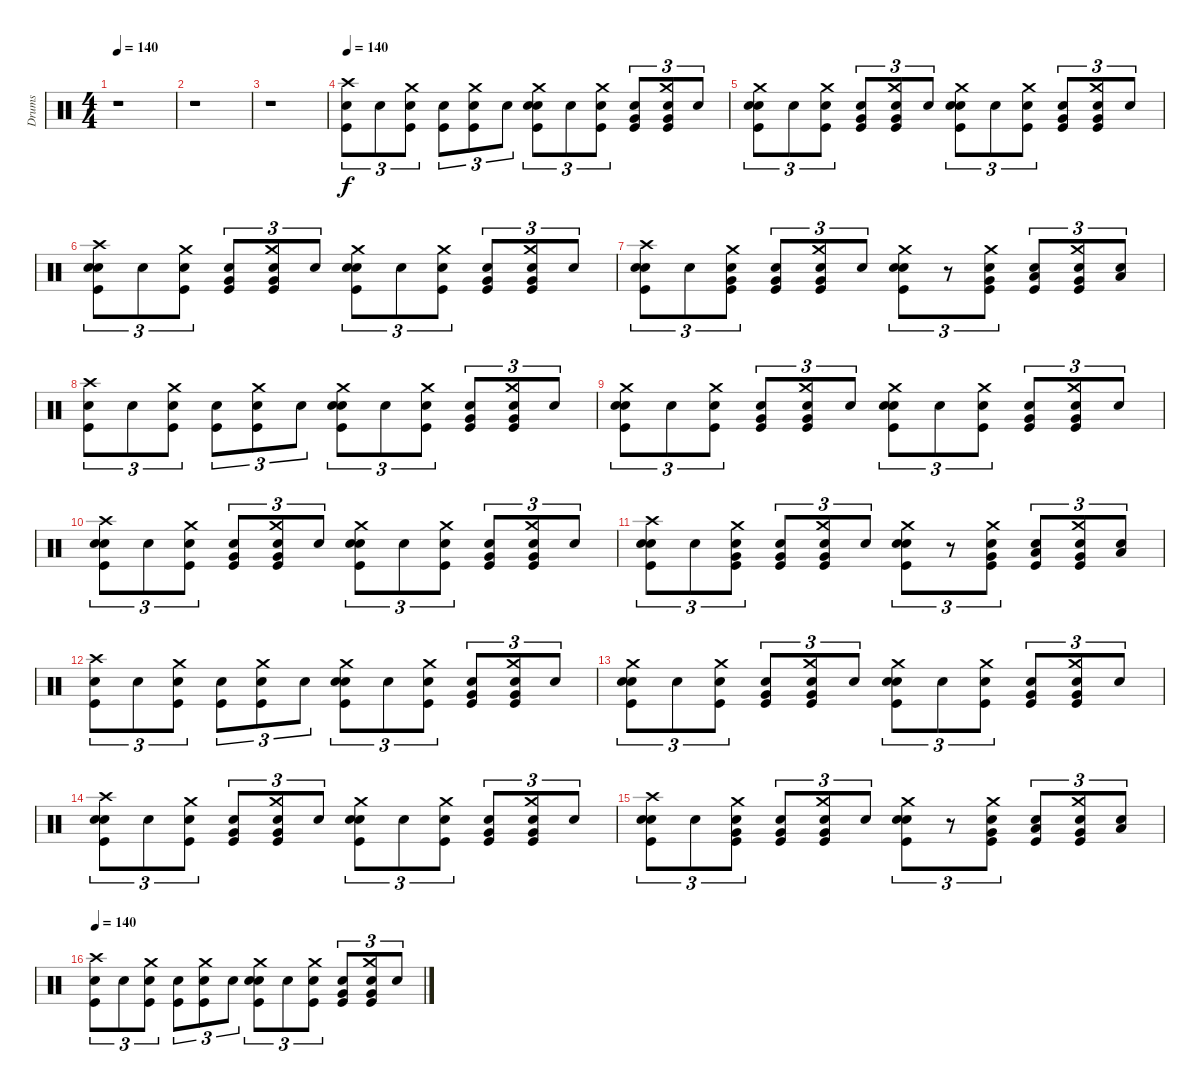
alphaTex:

\track ("Drums" "Drums") {instrument percussion}
\staff {score}
\articulation defaults
\ts (4 4)
\tempo 140
\clef neutral
\ks c
r.1{dy f} |
r.1 |
r.1 |
\tempo 140
("Crash high (hit)" "Snare (hit) 2" "Kick (hit)").8{tu (3 2)} "Snare (hit) 2".8{tu (3 2)} ("Crash medium (hit)" "Snare (hit) 2" "Kick (hit)").8{tu (3 2)} ("Snare (hit) 2" "Kick (hit)").8{tu (3 2)} ("Crash medium (hit)" "Snare (hit) 2" "Kick (hit)").8{tu (3 2)} "Snare (hit) 2".8{tu (3 2)} ("Crash medium (hit)" "Snare (hit) 2" "Snare (hit) 2" "Kick (hit)").8{tu (3 2)} "Snare (hit) 2".8{tu (3 2)} ("Crash medium (hit)" "Snare (hit) 2" "Kick (hit)").8{tu (3 2)} ("Snare (hit) 2" "Very Low Tom (hit)" "Kick (hit)").8{tu (3 2)} ("Crash medium (hit)" "Snare (hit) 2" "Very Low Tom (hit)" "Kick (hit)").8{tu (3 2)} "Snare (hit) 2".8{tu (3 2)} |
("Crash medium (hit)" "Snare (hit) 2" "Snare (hit) 2" "Kick (hit)").8{tu (3 2)} "Snare (hit) 2".8{tu (3 2)} ("Crash medium (hit)" "Snare (hit) 2" "Kick (hit)").8{tu (3 2)} ("Snare (hit) 2" "Very Low Tom (hit)" "Kick (hit)").8{tu (3 2)} ("Crash medium (hit)" "Snare (hit) 2" "Very Low Tom (hit)" "Kick (hit)").8{tu (3 2)} "Snare (hit) 2".8{tu (3 2)} ("Crash medium (hit)" "Snare (hit) 2" "Snare (hit) 2" "Kick (hit)").8{tu (3 2)} "Snare (hit) 2".8{tu (3 2)} ("Crash medium (hit)" "Snare (hit) 2" "Kick (hit)").8{tu (3 2)} ("Snare (hit) 2" "Very Low Tom (hit)" "Kick (hit)").8{tu (3 2)} ("Crash medium (hit)" "Snare (hit) 2" "Very Low Tom (hit)" "Kick (hit)").8{tu (3 2)} "Snare (hit) 2".8{tu (3 2)} |
("Crash high (hit)" "Snare (hit) 2" "Snare (hit) 2" "Kick (hit)").8{tu (3 2)} "Snare (hit) 2".8{tu (3 2)} ("Crash medium (hit)" "Snare (hit) 2" "Kick (hit)").8{tu (3 2)} ("Snare (hit) 2" "Very Low Tom (hit)" "Kick (hit)").8{tu (3 2)} ("Crash medium (hit)" "Snare (hit) 2" "Very Low Tom (hit)" "Kick (hit)").8{tu (3 2)} "Snare (hit) 2".8{tu (3 2)} ("Crash medium (hit)" "Snare (hit) 2" "Snare (hit) 2" "Kick (hit)").8{tu (3 2)} "Snare (hit) 2".8{tu (3 2)} ("Crash medium (hit)" "Snare (hit) 2" "Kick (hit)").8{tu (3 2)} ("Snare (hit) 2" "Very Low Tom (hit)" "Kick (hit)").8{tu (3 2)} ("Crash medium (hit)" "Snare (hit) 2" "Very Low Tom (hit)" "Kick (hit)").8{tu (3 2)} "Snare (hit) 2".8{tu (3 2)} |
("Crash high (hit)" "Snare (hit) 2" "Snare (hit) 2" "Kick (hit)").8{tu (3 2)} "Snare (hit) 2".8{tu (3 2)} ("Crash medium (hit)" "Snare (hit) 2" "Very Low Tom (hit)" "Kick (hit)").8{tu (3 2)} ("Snare (hit) 2" "Very Low Tom (hit)" "Kick (hit)").8{tu (3 2)} ("Crash medium (hit)" "Snare (hit) 2" "Very Low Tom (hit)" "Kick (hit)").8{tu (3 2)} "Snare (hit) 2".8{tu (3 2)} ("Crash medium (hit)" "Snare (hit) 2" "Snare (hit) 2" "Kick (hit)").8{tu (3 2)} r.8{tu (3 2)} ("Crash medium (hit)" "Snare (hit) 2" "Very Low Tom (hit)" "Kick (hit)").8{tu (3 2)} ("Snare (hit) 2" "Low Tom (hit)" "Kick (hit)").8{tu (3 2)} ("Crash medium (hit)" "Snare (hit) 2" "Very Low Tom (hit)" "Kick (hit)").8{tu (3 2)} ("Snare (hit) 2" "Low Floor Tom (hit)").8{tu (3 2)} |
("Crash high (hit)" "Snare (hit) 2" "Kick (hit)").8{tu (3 2)} "Snare (hit) 2".8{tu (3 2)} ("Crash medium (hit)" "Snare (hit) 2" "Kick (hit)").8{tu (3 2)} ("Snare (hit) 2" "Kick (hit)").8{tu (3 2)} ("Crash medium (hit)" "Snare (hit) 2" "Kick (hit)").8{tu (3 2)} "Snare (hit) 2".8{tu (3 2)} ("Crash medium (hit)" "Snare (hit) 2" "Snare (hit) 2" "Kick (hit)").8{tu (3 2)} "Snare (hit) 2".8{tu (3 2)} ("Crash medium (hit)" "Snare (hit) 2" "Kick (hit)").8{tu (3 2)} ("Snare (hit) 2" "Very Low Tom (hit)" "Kick (hit)").8{tu (3 2)} ("Crash medium (hit)" "Snare (hit) 2" "Very Low Tom (hit)" "Kick (hit)").8{tu (3 2)} "Snare (hit) 2".8{tu (3 2)} |
("Crash medium (hit)" "Snare (hit) 2" "Snare (hit) 2" "Kick (hit)").8{tu (3 2)} "Snare (hit) 2".8{tu (3 2)} ("Crash medium (hit)" "Snare (hit) 2" "Kick (hit)").8{tu (3 2)} ("Snare (hit) 2" "Very Low Tom (hit)" "Kick (hit)").8{tu (3 2)} ("Crash medium (hit)" "Snare (hit) 2" "Very Low Tom (hit)" "Kick (hit)").8{tu (3 2)} "Snare (hit) 2".8{tu (3 2)} ("Crash medium (hit)" "Snare (hit) 2" "Snare (hit) 2" "Kick (hit)").8{tu (3 2)} "Snare (hit) 2".8{tu (3 2)} ("Crash medium (hit)" "Snare (hit) 2" "Kick (hit)").8{tu (3 2)} ("Snare (hit) 2" "Very Low Tom (hit)" "Kick (hit)").8{tu (3 2)} ("Crash medium (hit)" "Snare (hit) 2" "Very Low Tom (hit)" "Kick (hit)").8{tu (3 2)} "Snare (hit) 2".8{tu (3 2)} |
("Crash high (hit)" "Snare (hit) 2" "Snare (hit) 2" "Kick (hit)").8{tu (3 2)} "Snare (hit) 2".8{tu (3 2)} ("Crash medium (hit)" "Snare (hit) 2" "Kick (hit)").8{tu (3 2)} ("Snare (hit) 2" "Very Low Tom (hit)" "Kick (hit)").8{tu (3 2)} ("Crash medium (hit)" "Snare (hit) 2" "Very Low Tom (hit)" "Kick (hit)").8{tu (3 2)} "Snare (hit) 2".8{tu (3 2)} ("Crash medium (hit)" "Snare (hit) 2" "Snare (hit) 2" "Kick (hit)").8{tu (3 2)} "Snare (hit) 2".8{tu (3 2)} ("Crash medium (hit)" "Snare (hit) 2" "Kick (hit)").8{tu (3 2)} ("Snare (hit) 2" "Very Low Tom (hit)" "Kick (hit)").8{tu (3 2)} ("Crash medium (hit)" "Snare (hit) 2" "Very Low Tom (hit)" "Kick (hit)").8{tu (3 2)} "Snare (hit) 2".8{tu (3 2)} |
("Crash high (hit)" "Snare (hit) 2" "Snare (hit) 2" "Kick (hit)").8{tu (3 2)} "Snare (hit) 2".8{tu (3 2)} ("Crash medium (hit)" "Snare (hit) 2" "Very Low Tom (hit)" "Kick (hit)").8{tu (3 2)} ("Snare (hit) 2" "Very Low Tom (hit)" "Kick (hit)").8{tu (3 2)} ("Crash medium (hit)" "Snare (hit) 2" "Very Low Tom (hit)" "Kick (hit)").8{tu (3 2)} "Snare (hit) 2".8{tu (3 2)} ("Crash medium (hit)" "Snare (hit) 2" "Snare (hit) 2" "Kick (hit)").8{tu (3 2)} r.8{tu (3 2)} ("Crash medium (hit)" "Snare (hit) 2" "Very Low Tom (hit)" "Kick (hit)").8{tu (3 2)} ("Snare (hit) 2" "Low Tom (hit)" "Kick (hit)").8{tu (3 2)} ("Crash medium (hit)" "Snare (hit) 2" "Very Low Tom (hit)" "Kick (hit)").8{tu (3 2)} ("Snare (hit) 2" "Low Floor Tom (hit)").8{tu (3 2)} |
("Crash high (hit)" "Snare (hit) 2" "Kick (hit)").8{tu (3 2)} "Snare (hit) 2".8{tu (3 2)} ("Crash medium (hit)" "Snare (hit) 2" "Kick (hit)").8{tu (3 2)} ("Snare (hit) 2" "Kick (hit)").8{tu (3 2)} ("Crash medium (hit)" "Snare (hit) 2" "Kick (hit)").8{tu (3 2)} "Snare (hit) 2".8{tu (3 2)} ("Crash medium (hit)" "Snare (hit) 2" "Snare (hit) 2" "Kick (hit)").8{tu (3 2)} "Snare (hit) 2".8{tu (3 2)} ("Crash medium (hit)" "Snare (hit) 2" "Kick (hit)").8{tu (3 2)} ("Snare (hit) 2" "Very Low Tom (hit)" "Kick (hit)").8{tu (3 2)} ("Crash medium (hit)" "Snare (hit) 2" "Very Low Tom (hit)" "Kick (hit)").8{tu (3 2)} "Snare (hit) 2".8{tu (3 2)} |
("Crash medium (hit)" "Snare (hit) 2" "Snare (hit) 2" "Kick (hit)").8{tu (3 2)} "Snare (hit) 2".8{tu (3 2)} ("Crash medium (hit)" "Snare (hit) 2" "Kick (hit)").8{tu (3 2)} ("Snare (hit) 2" "Very Low Tom (hit)" "Kick (hit)").8{tu (3 2)} ("Crash medium (hit)" "Snare (hit) 2" "Very Low Tom (hit)" "Kick (hit)").8{tu (3 2)} "Snare (hit) 2".8{tu (3 2)} ("Crash medium (hit)" "Snare (hit) 2" "Snare (hit) 2" "Kick (hit)").8{tu (3 2)} "Snare (hit) 2".8{tu (3 2)} ("Crash medium (hit)" "Snare (hit) 2" "Kick (hit)").8{tu (3 2)} ("Snare (hit) 2" "Very Low Tom (hit)" "Kick (hit)").8{tu (3 2)} ("Crash medium (hit)" "Snare (hit) 2" "Very Low Tom (hit)" "Kick (hit)").8{tu (3 2)} "Snare (hit) 2".8{tu (3 2)} |
("Crash high (hit)" "Snare (hit) 2" "Snare (hit) 2" "Kick (hit)").8{tu (3 2)} "Snare (hit) 2".8{tu (3 2)} ("Crash medium (hit)" "Snare (hit) 2" "Kick (hit)").8{tu (3 2)} ("Snare (hit) 2" "Very Low Tom (hit)" "Kick (hit)").8{tu (3 2)} ("Crash medium (hit)" "Snare (hit) 2" "Very Low Tom (hit)" "Kick (hit)").8{tu (3 2)} "Snare (hit) 2".8{tu (3 2)} ("Crash medium (hit)" "Snare (hit) 2" "Snare (hit) 2" "Kick (hit)").8{tu (3 2)} "Snare (hit) 2".8{tu (3 2)} ("Crash medium (hit)" "Snare (hit) 2" "Kick (hit)").8{tu (3 2)} ("Snare (hit) 2" "Very Low Tom (hit)" "Kick (hit)").8{tu (3 2)} ("Crash medium (hit)" "Snare (hit) 2" "Very Low Tom (hit)" "Kick (hit)").8{tu (3 2)} "Snare (hit) 2".8{tu (3 2)} |
("Crash high (hit)" "Snare (hit) 2" "Snare (hit) 2" "Kick (hit)").8{tu (3 2)} "Snare (hit) 2".8{tu (3 2)} ("Crash medium (hit)" "Snare (hit) 2" "Very Low Tom (hit)" "Kick (hit)").8{tu (3 2)} ("Snare (hit) 2" "Very Low Tom (hit)" "Kick (hit)").8{tu (3 2)} ("Crash medium (hit)" "Snare (hit) 2" "Very Low Tom (hit)" "Kick (hit)").8{tu (3 2)} "Snare (hit) 2".8{tu (3 2)} ("Crash medium (hit)" "Snare (hit) 2" "Snare (hit) 2" "Kick (hit)").8{tu (3 2)} r.8{tu (3 2)} ("Crash medium (hit)" "Snare (hit) 2" "Very Low Tom (hit)" "Kick (hit)").8{tu (3 2)} ("Snare (hit) 2" "Low Tom (hit)" "Kick (hit)").8{tu (3 2)} ("Crash medium (hit)" "Snare (hit) 2" "Very Low Tom (hit)" "Kick (hit)").8{tu (3 2)} ("Snare (hit) 2" "Low Floor Tom (hit)").8{tu (3 2)} |
\tempo 140
("Crash high (hit)" "Snare (hit) 2" "Kick (hit)").8{tu (3 2)} "Snare (hit) 2".8{tu (3 2)} ("Crash medium (hit)" "Snare (hit) 2" "Kick (hit)").8{tu (3 2)} ("Snare (hit) 2" "Kick (hit)").8{tu (3 2)} ("Crash medium (hit)" "Snare (hit) 2" "Kick (hit)").8{tu (3 2)} "Snare (hit) 2".8{tu (3 2)} ("Crash medium (hit)" "Snare (hit) 2" "Snare (hit) 2" "Kick (hit)").8{tu (3 2)} "Snare (hit) 2".8{tu (3 2)} ("Crash medium (hit)" "Snare (hit) 2" "Kick (hit)").8{tu (3 2)} ("Snare (hit) 2" "Very Low Tom (hit)" "Kick (hit)").8{tu (3 2)} ("Crash medium (hit)" "Snare (hit) 2" "Very Low Tom (hit)" "Kick (hit)").8{tu (3 2)} "Snare (hit) 2".8{tu (3 2)}
